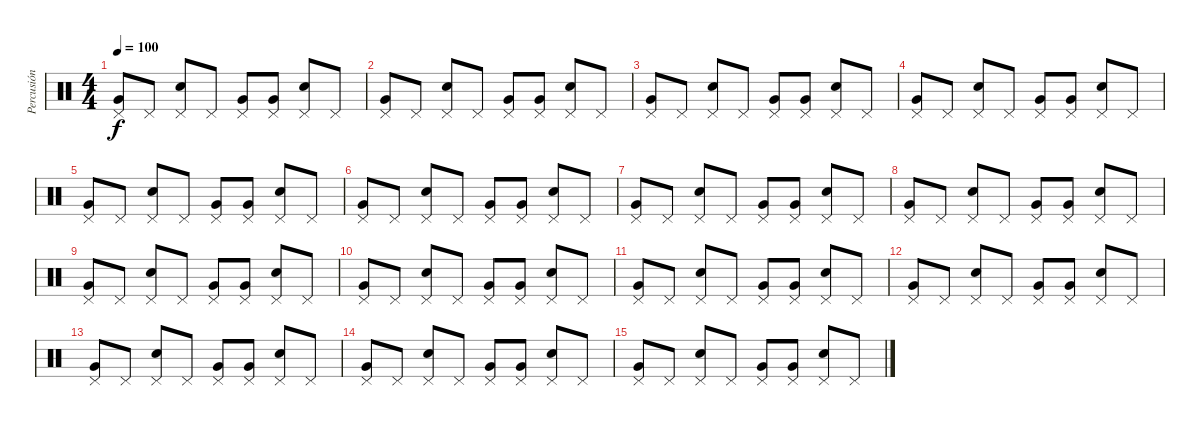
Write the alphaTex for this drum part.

\track ("Percusión" "Percusión") {instrument percussion}
\staff {score}
\articulation defaults
\ts (4 4)
\tempo 100
\clef neutral
\ks c
("Pedal Hi-Hat (hit)" "Very Low Tom (hit)").8{dy f} "Pedal Hi-Hat (hit)".8 ("Pedal Hi-Hat (hit)" "Snare (hit) 2").8 "Pedal Hi-Hat (hit)".8 ("Pedal Hi-Hat (hit)" "Very Low Tom (hit)").8 ("Pedal Hi-Hat (hit)" "Very Low Tom (hit)").8 ("Pedal Hi-Hat (hit)" "Snare (hit) 2").8 "Pedal Hi-Hat (hit)".8 |
("Pedal Hi-Hat (hit)" "Very Low Tom (hit)").8 "Pedal Hi-Hat (hit)".8 ("Pedal Hi-Hat (hit)" "Snare (hit) 2").8 "Pedal Hi-Hat (hit)".8 ("Pedal Hi-Hat (hit)" "Very Low Tom (hit)").8 ("Pedal Hi-Hat (hit)" "Very Low Tom (hit)").8 ("Pedal Hi-Hat (hit)" "Snare (hit) 2").8 "Pedal Hi-Hat (hit)".8 |
("Pedal Hi-Hat (hit)" "Very Low Tom (hit)").8 "Pedal Hi-Hat (hit)".8 ("Pedal Hi-Hat (hit)" "Snare (hit) 2").8 "Pedal Hi-Hat (hit)".8 ("Pedal Hi-Hat (hit)" "Very Low Tom (hit)").8 ("Pedal Hi-Hat (hit)" "Very Low Tom (hit)").8 ("Pedal Hi-Hat (hit)" "Snare (hit) 2").8 "Pedal Hi-Hat (hit)".8 |
("Pedal Hi-Hat (hit)" "Very Low Tom (hit)").8 "Pedal Hi-Hat (hit)".8 ("Pedal Hi-Hat (hit)" "Snare (hit) 2").8 "Pedal Hi-Hat (hit)".8 ("Pedal Hi-Hat (hit)" "Very Low Tom (hit)").8 ("Pedal Hi-Hat (hit)" "Very Low Tom (hit)").8 ("Pedal Hi-Hat (hit)" "Snare (hit) 2").8 "Pedal Hi-Hat (hit)".8 |
("Pedal Hi-Hat (hit)" "Very Low Tom (hit)").8 "Pedal Hi-Hat (hit)".8 ("Pedal Hi-Hat (hit)" "Snare (hit) 2").8 "Pedal Hi-Hat (hit)".8 ("Pedal Hi-Hat (hit)" "Very Low Tom (hit)").8 ("Pedal Hi-Hat (hit)" "Very Low Tom (hit)").8 ("Pedal Hi-Hat (hit)" "Snare (hit) 2").8 "Pedal Hi-Hat (hit)".8 |
("Pedal Hi-Hat (hit)" "Very Low Tom (hit)").8 "Pedal Hi-Hat (hit)".8 ("Pedal Hi-Hat (hit)" "Snare (hit) 2").8 "Pedal Hi-Hat (hit)".8 ("Pedal Hi-Hat (hit)" "Very Low Tom (hit)").8 ("Pedal Hi-Hat (hit)" "Very Low Tom (hit)").8 ("Pedal Hi-Hat (hit)" "Snare (hit) 2").8 "Pedal Hi-Hat (hit)".8 |
("Pedal Hi-Hat (hit)" "Very Low Tom (hit)").8 "Pedal Hi-Hat (hit)".8 ("Pedal Hi-Hat (hit)" "Snare (hit) 2").8 "Pedal Hi-Hat (hit)".8 ("Pedal Hi-Hat (hit)" "Very Low Tom (hit)").8 ("Pedal Hi-Hat (hit)" "Very Low Tom (hit)").8 ("Pedal Hi-Hat (hit)" "Snare (hit) 2").8 "Pedal Hi-Hat (hit)".8 |
("Pedal Hi-Hat (hit)" "Very Low Tom (hit)").8 "Pedal Hi-Hat (hit)".8 ("Pedal Hi-Hat (hit)" "Snare (hit) 2").8 "Pedal Hi-Hat (hit)".8 ("Pedal Hi-Hat (hit)" "Very Low Tom (hit)").8 ("Pedal Hi-Hat (hit)" "Very Low Tom (hit)").8 ("Pedal Hi-Hat (hit)" "Snare (hit) 2").8 "Pedal Hi-Hat (hit)".8 |
("Pedal Hi-Hat (hit)" "Very Low Tom (hit)").8 "Pedal Hi-Hat (hit)".8 ("Pedal Hi-Hat (hit)" "Snare (hit) 2").8 "Pedal Hi-Hat (hit)".8 ("Pedal Hi-Hat (hit)" "Very Low Tom (hit)").8 ("Pedal Hi-Hat (hit)" "Very Low Tom (hit)").8 ("Pedal Hi-Hat (hit)" "Snare (hit) 2").8 "Pedal Hi-Hat (hit)".8 |
("Pedal Hi-Hat (hit)" "Very Low Tom (hit)").8 "Pedal Hi-Hat (hit)".8 ("Pedal Hi-Hat (hit)" "Snare (hit) 2").8 "Pedal Hi-Hat (hit)".8 ("Pedal Hi-Hat (hit)" "Very Low Tom (hit)").8 ("Pedal Hi-Hat (hit)" "Very Low Tom (hit)").8 ("Pedal Hi-Hat (hit)" "Snare (hit) 2").8 "Pedal Hi-Hat (hit)".8 |
("Pedal Hi-Hat (hit)" "Very Low Tom (hit)").8 "Pedal Hi-Hat (hit)".8 ("Pedal Hi-Hat (hit)" "Snare (hit) 2").8 "Pedal Hi-Hat (hit)".8 ("Pedal Hi-Hat (hit)" "Very Low Tom (hit)").8 ("Pedal Hi-Hat (hit)" "Very Low Tom (hit)").8 ("Pedal Hi-Hat (hit)" "Snare (hit) 2").8 "Pedal Hi-Hat (hit)".8 |
("Pedal Hi-Hat (hit)" "Very Low Tom (hit)").8 "Pedal Hi-Hat (hit)".8 ("Pedal Hi-Hat (hit)" "Snare (hit) 2").8 "Pedal Hi-Hat (hit)".8 ("Pedal Hi-Hat (hit)" "Very Low Tom (hit)").8 ("Pedal Hi-Hat (hit)" "Very Low Tom (hit)").8 ("Pedal Hi-Hat (hit)" "Snare (hit) 2").8 "Pedal Hi-Hat (hit)".8 |
("Pedal Hi-Hat (hit)" "Very Low Tom (hit)").8 "Pedal Hi-Hat (hit)".8 ("Pedal Hi-Hat (hit)" "Snare (hit) 2").8 "Pedal Hi-Hat (hit)".8 ("Pedal Hi-Hat (hit)" "Very Low Tom (hit)").8 ("Pedal Hi-Hat (hit)" "Very Low Tom (hit)").8 ("Pedal Hi-Hat (hit)" "Snare (hit) 2").8 "Pedal Hi-Hat (hit)".8 |
("Pedal Hi-Hat (hit)" "Very Low Tom (hit)").8 "Pedal Hi-Hat (hit)".8 ("Pedal Hi-Hat (hit)" "Snare (hit) 2").8 "Pedal Hi-Hat (hit)".8 ("Pedal Hi-Hat (hit)" "Very Low Tom (hit)").8 ("Pedal Hi-Hat (hit)" "Very Low Tom (hit)").8 ("Pedal Hi-Hat (hit)" "Snare (hit) 2").8 "Pedal Hi-Hat (hit)".8 |
("Pedal Hi-Hat (hit)" "Very Low Tom (hit)").8 "Pedal Hi-Hat (hit)".8 ("Pedal Hi-Hat (hit)" "Snare (hit) 2").8 "Pedal Hi-Hat (hit)".8 ("Pedal Hi-Hat (hit)" "Very Low Tom (hit)").8 ("Pedal Hi-Hat (hit)" "Very Low Tom (hit)").8 ("Pedal Hi-Hat (hit)" "Snare (hit) 2").8 "Pedal Hi-Hat (hit)".8
